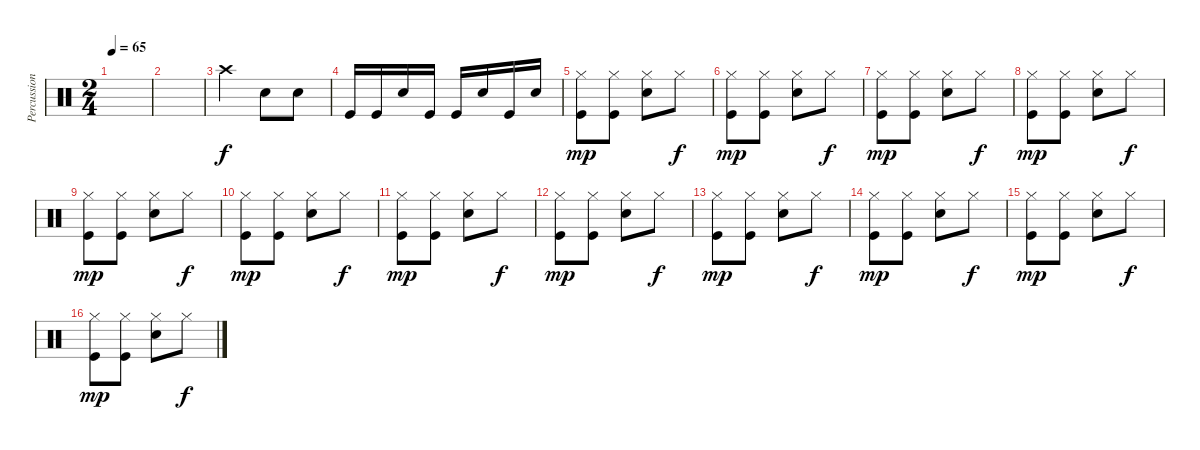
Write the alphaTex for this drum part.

\track ("Percussions" "Percussion") {instrument percussion}
\staff {score}
\articulation defaults
\ts (2 4)
\tempo 65
\clef neutral
\ks c
|
|
"Crash high (hit)".4 "Electric Snare (hit)".8 "Electric Snare (hit)".8 |
"Kick (hit)".16 "Kick (hit)".16 "Electric Snare (hit)".16 "Kick (hit)".16 "Kick (hit)".16 "Electric Snare (hit)".16 "Kick (hit)".16 "Electric Snare (hit)".16 |
("Hi-Hat (closed)" "Kick (hit)").8{dy mp} ("Hi-Hat (closed)" "Kick (hit)").8 ("Hi-Hat (closed)" "Electric Snare (hit)").8 "Hi-Hat (closed)".8{dy f} |
("Hi-Hat (closed)" "Kick (hit)").8{dy mp} ("Hi-Hat (closed)" "Kick (hit)").8 ("Hi-Hat (closed)" "Electric Snare (hit)").8 "Hi-Hat (closed)".8{dy f} |
("Hi-Hat (closed)" "Kick (hit)").8{dy mp} ("Hi-Hat (closed)" "Kick (hit)").8 ("Hi-Hat (closed)" "Electric Snare (hit)").8 "Hi-Hat (closed)".8{dy f} |
("Hi-Hat (closed)" "Kick (hit)").8{dy mp} ("Hi-Hat (closed)" "Kick (hit)").8 ("Hi-Hat (closed)" "Electric Snare (hit)").8 "Hi-Hat (closed)".8{dy f} |
("Hi-Hat (closed)" "Kick (hit)").8{dy mp} ("Hi-Hat (closed)" "Kick (hit)").8 ("Hi-Hat (closed)" "Electric Snare (hit)").8 "Hi-Hat (closed)".8{dy f} |
("Hi-Hat (closed)" "Kick (hit)").8{dy mp} ("Hi-Hat (closed)" "Kick (hit)").8 ("Hi-Hat (closed)" "Electric Snare (hit)").8 "Hi-Hat (closed)".8{dy f} |
("Hi-Hat (closed)" "Kick (hit)").8{dy mp} ("Hi-Hat (closed)" "Kick (hit)").8 ("Hi-Hat (closed)" "Electric Snare (hit)").8 "Hi-Hat (closed)".8{dy f} |
("Hi-Hat (closed)" "Kick (hit)").8{dy mp} ("Hi-Hat (closed)" "Kick (hit)").8 ("Hi-Hat (closed)" "Electric Snare (hit)").8 "Hi-Hat (closed)".8{dy f} |
("Hi-Hat (closed)" "Kick (hit)").8{dy mp} ("Hi-Hat (closed)" "Kick (hit)").8 ("Hi-Hat (closed)" "Electric Snare (hit)").8 "Hi-Hat (closed)".8{dy f} |
("Hi-Hat (closed)" "Kick (hit)").8{dy mp} ("Hi-Hat (closed)" "Kick (hit)").8 ("Hi-Hat (closed)" "Electric Snare (hit)").8 "Hi-Hat (closed)".8{dy f} |
("Hi-Hat (closed)" "Kick (hit)").8{dy mp} ("Hi-Hat (closed)" "Kick (hit)").8 ("Hi-Hat (closed)" "Electric Snare (hit)").8 "Hi-Hat (closed)".8{dy f} |
("Hi-Hat (closed)" "Kick (hit)").8{dy mp} ("Hi-Hat (closed)" "Kick (hit)").8 ("Hi-Hat (closed)" "Electric Snare (hit)").8 "Hi-Hat (closed)".8{dy f}
